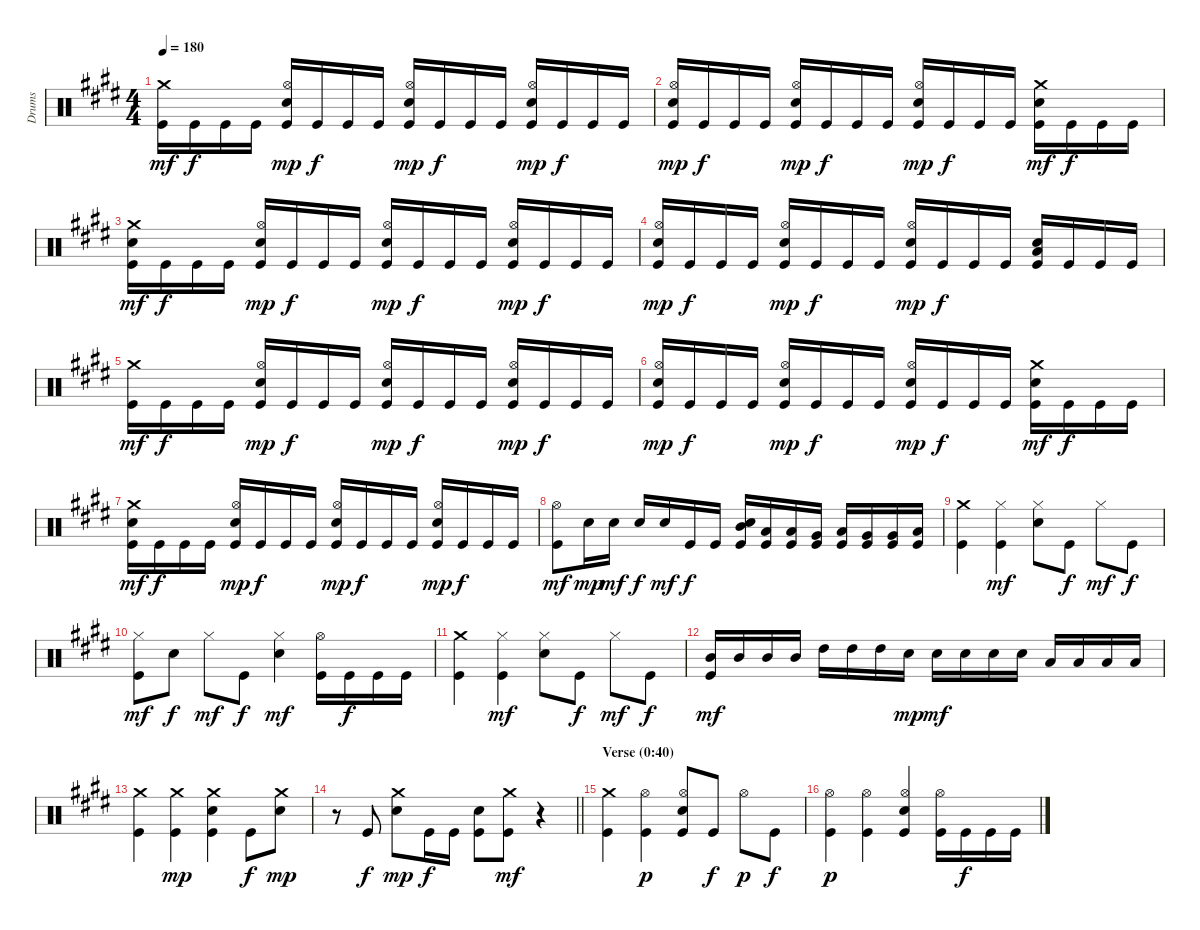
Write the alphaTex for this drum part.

\track ("Drums" "Drums") {instrument percussion}
\staff {score}
\articulation defaults
\ts (4 4)
\tempo 180
\clef neutral
\ks c#minor
("Crash medium (hit)" "Kick (hit)").16{dy mf} "Kick (hit)".16{dy f} "Kick (hit)".16 "Kick (hit)".16 ("Hi-Hat (open)" "Snare (hit) 2" "Kick (hit)").16{dy mp} "Kick (hit)".16{dy f} "Kick (hit)".16 "Kick (hit)".16 ("Hi-Hat (open)" "Snare (hit) 2" "Kick (hit)").16{dy mp} "Kick (hit)".16{dy f} "Kick (hit)".16 "Kick (hit)".16 ("Hi-Hat (open)" "Snare (hit) 2" "Kick (hit)").16{dy mp} "Kick (hit)".16{dy f} "Kick (hit)".16 "Kick (hit)".16 |
("Hi-Hat (open)" "Snare (hit) 2" "Kick (hit)").16{dy mp} "Kick (hit)".16{dy f} "Kick (hit)".16 "Kick (hit)".16 ("Hi-Hat (open)" "Snare (hit) 2" "Kick (hit)").16{dy mp} "Kick (hit)".16{dy f} "Kick (hit)".16 "Kick (hit)".16 ("Hi-Hat (open)" "Snare (hit) 2" "Kick (hit)").16{dy mp} "Kick (hit)".16{dy f} "Kick (hit)".16 "Kick (hit)".16 ("Crash medium (hit)" "Snare (hit) 2" "Kick (hit)").16{dy mf} "Kick (hit)".16{dy f} "Kick (hit)".16 "Kick (hit)".16 |
("Crash medium (hit)" "Snare (hit) 2" "Kick (hit)").16{dy mf} "Kick (hit)".16{dy f} "Kick (hit)".16 "Kick (hit)".16 ("Hi-Hat (open)" "Snare (hit) 2" "Kick (hit)").16{dy mp} "Kick (hit)".16{dy f} "Kick (hit)".16 "Kick (hit)".16 ("Hi-Hat (open)" "Snare (hit) 2" "Kick (hit)").16{dy mp} "Kick (hit)".16{dy f} "Kick (hit)".16 "Kick (hit)".16 ("Hi-Hat (open)" "Snare (hit) 2" "Kick (hit)").16{dy mp} "Kick (hit)".16{dy f} "Kick (hit)".16 "Kick (hit)".16 |
("Hi-Hat (open)" "Snare (hit) 2" "Kick (hit)").16{dy mp} "Kick (hit)".16{dy f} "Kick (hit)".16 "Kick (hit)".16 ("Hi-Hat (open)" "Snare (hit) 2" "Kick (hit)").16{dy mp} "Kick (hit)".16{dy f} "Kick (hit)".16 "Kick (hit)".16 ("Hi-Hat (open)" "Snare (hit) 2" "Kick (hit)").16{dy mp} "Kick (hit)".16{dy f} "Kick (hit)".16 "Kick (hit)".16 ("Low Tom (hit)" "Snare (hit) 2" "Kick (hit)").16 "Kick (hit)".16 "Kick (hit)".16 "Kick (hit)".16 |
("Crash medium (hit)" "Kick (hit)").16{dy mf} "Kick (hit)".16{dy f} "Kick (hit)".16 "Kick (hit)".16 ("Hi-Hat (open)" "Snare (hit) 2" "Kick (hit)").16{dy mp} "Kick (hit)".16{dy f} "Kick (hit)".16 "Kick (hit)".16 ("Hi-Hat (open)" "Snare (hit) 2" "Kick (hit)").16{dy mp} "Kick (hit)".16{dy f} "Kick (hit)".16 "Kick (hit)".16 ("Hi-Hat (open)" "Snare (hit) 2" "Kick (hit)").16{dy mp} "Kick (hit)".16{dy f} "Kick (hit)".16 "Kick (hit)".16 |
("Hi-Hat (open)" "Snare (hit) 2" "Kick (hit)").16{dy mp} "Kick (hit)".16{dy f} "Kick (hit)".16 "Kick (hit)".16 ("Hi-Hat (open)" "Snare (hit) 2" "Kick (hit)").16{dy mp} "Kick (hit)".16{dy f} "Kick (hit)".16 "Kick (hit)".16 ("Hi-Hat (open)" "Snare (hit) 2" "Kick (hit)").16{dy mp} "Kick (hit)".16{dy f} "Kick (hit)".16 "Kick (hit)".16 ("Crash medium (hit)" "Snare (hit) 2" "Kick (hit)").16{dy mf} "Kick (hit)".16{dy f} "Kick (hit)".16 "Kick (hit)".16 |
("Crash medium (hit)" "Snare (hit) 2" "Kick (hit)").16{dy mf} "Kick (hit)".16{dy f} "Kick (hit)".16 "Kick (hit)".16 ("Hi-Hat (open)" "Snare (hit) 2" "Kick (hit)").16{dy mp} "Kick (hit)".16{dy f} "Kick (hit)".16 "Kick (hit)".16 ("Hi-Hat (open)" "Snare (hit) 2" "Kick (hit)").16{dy mp} "Kick (hit)".16{dy f} "Kick (hit)".16 "Kick (hit)".16 ("Hi-Hat (open)" "Snare (hit) 2" "Kick (hit)").16{dy mp} "Kick (hit)".16{dy f} "Kick (hit)".16 "Kick (hit)".16 |
("Hi-Hat (open)" "Kick (hit)").8{dy mf} "Snare (hit) 2".16{dy mp} "Snare (hit) 2".16{dy mf} "Snare (hit) 2".16{dy f} "Snare (hit) 2".16{dy mf} "Kick (hit)".16{dy f} "Kick (hit)".16 ("Mid Tom (hit)" "Snare (hit) 2" "Kick (hit)").16 ("Low Tom (hit)" "Kick (hit)").16 ("Low Tom (hit)" "Kick (hit)").16 ("Very Low Tom (hit)" "Kick (hit)").16 ("Low Tom (hit)" "Kick (hit)").16 ("Very Low Tom (hit)" "Kick (hit)").16 ("Very Low Tom (hit)" "Kick (hit)").16 ("Low Floor Tom (hit)" "Kick (hit)").16 |
("Crash medium (hit)" "Kick (hit)").4 ("Hi-Hat (closed)" "Kick (hit)").4{dy mf} ("Hi-Hat (closed)" "Snare (hit) 2").8 "Kick (hit)".8{dy f} "Hi-Hat (closed)".8{dy mf} "Kick (hit)".8{dy f} |
("Hi-Hat (closed)" "Kick (hit)").8{dy mf} "Snare (hit) 2".8{dy f} "Hi-Hat (closed)".8{dy mf} "Kick (hit)".8{dy f} ("Hi-Hat (closed)" "Snare (hit) 2").4{dy mf} ("Hi-Hat (open)" "Kick (hit)").16 "Kick (hit)".16{dy f} "Kick (hit)".16 "Kick (hit)".16 |
("Crash medium (hit)" "Kick (hit)").4 ("Hi-Hat (closed)" "Kick (hit)").4{dy mf} ("Hi-Hat (closed)" "Snare (hit) 2").8 "Kick (hit)".8{dy f} "Hi-Hat (closed)".8{dy mf} "Kick (hit)".8{dy f} |
("Mid Tom (hit)" "Kick (hit)").16{dy mf} "Mid Tom (hit)".16 "Mid Tom (hit)".16 "Mid Tom (hit)".16 "High Tom (hit)".16 "High Tom (hit)".16 "High Tom (hit)".16 "Snare (hit) 2".16{dy mp} "Snare (hit) 2".16{dy mf} "Snare (hit) 2".16 "Snare (hit) 2".16 "Snare (hit) 2".16 "Low Tom (hit)".16 "Low Tom (hit)".16 "Low Tom (hit)".16 "Low Tom (hit)".16 |
("Crash medium (hit)" "Kick (hit)").4 ("Crash medium (hit)" "Kick (hit)").4{dy mp} ("Crash medium (hit)" "Snare (hit) 2" "Kick (hit)").4 "Kick (hit)".8{dy f} ("Crash medium (hit)" "Snare (hit) 2").8{dy mp} |
\barLineRight lightlight
r.8 "Kick (hit)".8{dy f} ("Crash medium (hit)" "Snare (hit) 2").8{dy mp} "Kick (hit)".16{dy f} "Kick (hit)".16 ("Snare (hit) 2" "Kick (hit)").8 ("Crash medium (hit)" "Kick (hit)").8{dy mf} r.4 |
\section ("" "Verse (0:40)")
("Crash medium (hit)" "Kick (hit)").4 ("Hi-Hat (open)" "Kick (hit)").4{dy p} ("Hi-Hat (open)" "Snare (hit) 2" "Kick (hit)").8 "Kick (hit)".8{dy f} "Hi-Hat (open)".8{dy p} "Kick (hit)".8{dy f} |
("Hi-Hat (open)" "Kick (hit)").4{dy p} ("Hi-Hat (open)" "Kick (hit)").4 ("Hi-Hat (open)" "Snare (hit) 2" "Kick (hit)").4 ("Hi-Hat (open)" "Kick (hit)").16 "Kick (hit)".16{dy f} "Kick (hit)".16 "Kick (hit)".16
